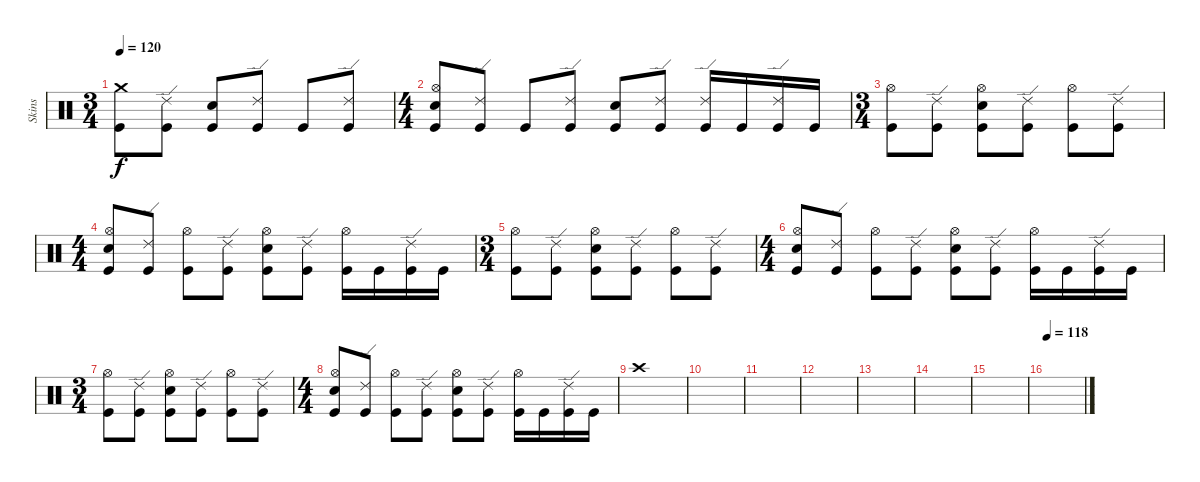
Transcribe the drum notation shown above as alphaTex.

\track ("Skins" "Skins") {instrument percussion}
\staff {score}
\articulation defaults
\ts (3 4)
\tempo 120
\clef neutral
\ks c
("Crash medium (hit)" "Kick (hit)").8{dy f} ("Ride (edge) 2" "Kick (hit)").8 ("Snare (hit) 2" "Kick (hit)").8 ("Ride (edge) 2" "Kick (hit)").8 "Kick (hit)".8 ("Ride (edge) 2" "Kick (hit)").8 |
\ts (4 4)
("Hi-Hat (open)" "Electric Snare (hit)" "Kick (hit)").8 ("Ride (edge) 2" "Kick (hit)").8 "Kick (hit)".8 ("Ride (edge) 2" "Kick (hit)").8 ("Snare (hit) 2" "Kick (hit)").8 ("Ride (edge) 2" "Kick (hit)").8 ("Ride (edge) 2" "Kick (hit)").16 "Kick (hit)".16 ("Ride (edge) 2" "Kick (hit)").16 "Kick (hit)".16 |
\ts (3 4)
("Hi-Hat (open)" "Kick (hit)").8 ("Ride (edge) 2" "Kick (hit)").8 ("Hi-Hat (open)" "Snare (hit) 2" "Kick (hit)").8 ("Ride (edge) 2" "Kick (hit)").8 ("Hi-Hat (open)" "Kick (hit)").8 ("Ride (edge) 2" "Kick (hit)").8 |
\ts (4 4)
("Hi-Hat (open)" "Electric Snare (hit)" "Kick (hit)").8 ("Ride (edge) 2" "Kick (hit)").8 ("Hi-Hat (open)" "Kick (hit)").8 ("Ride (edge) 2" "Kick (hit)").8 ("Hi-Hat (open)" "Snare (hit) 2" "Kick (hit)").8 ("Ride (edge) 2" "Kick (hit)").8 ("Hi-Hat (open)" "Kick (hit)").16 "Kick (hit)".16 ("Ride (edge) 2" "Kick (hit)").16 "Kick (hit)".16 |
\ts (3 4)
("Hi-Hat (open)" "Kick (hit)").8 ("Ride (edge) 2" "Kick (hit)").8 ("Hi-Hat (open)" "Snare (hit) 2" "Kick (hit)").8 ("Ride (edge) 2" "Kick (hit)").8 ("Hi-Hat (open)" "Kick (hit)").8 ("Ride (edge) 2" "Kick (hit)").8 |
\ts (4 4)
("Hi-Hat (open)" "Electric Snare (hit)" "Kick (hit)").8 ("Ride (edge) 2" "Kick (hit)").8 ("Hi-Hat (open)" "Kick (hit)").8 ("Ride (edge) 2" "Kick (hit)").8 ("Hi-Hat (open)" "Snare (hit) 2" "Kick (hit)").8 ("Ride (edge) 2" "Kick (hit)").8 ("Hi-Hat (open)" "Kick (hit)").16 "Kick (hit)".16 ("Ride (edge) 2" "Kick (hit)").16 "Kick (hit)".16 |
\ts (3 4)
("Hi-Hat (open)" "Kick (hit)").8 ("Ride (edge) 2" "Kick (hit)").8 ("Hi-Hat (open)" "Snare (hit) 2" "Kick (hit)").8 ("Ride (edge) 2" "Kick (hit)").8 ("Hi-Hat (open)" "Kick (hit)").8 ("Ride (edge) 2" "Kick (hit)").8 |
\ts (4 4)
("Hi-Hat (open)" "Electric Snare (hit)" "Kick (hit)").8 ("Ride (edge) 2" "Kick (hit)").8 ("Hi-Hat (open)" "Kick (hit)").8 ("Ride (edge) 2" "Kick (hit)").8 ("Hi-Hat (open)" "Snare (hit) 2" "Kick (hit)").8 ("Ride (edge) 2" "Kick (hit)").8 ("Hi-Hat (open)" "Kick (hit)").16 "Kick (hit)".16 ("Ride (edge) 2" "Kick (hit)").16 "Kick (hit)".16 |
"Crash high (hit)".1 |
|
|
|
|
|
|
\tempo 118
